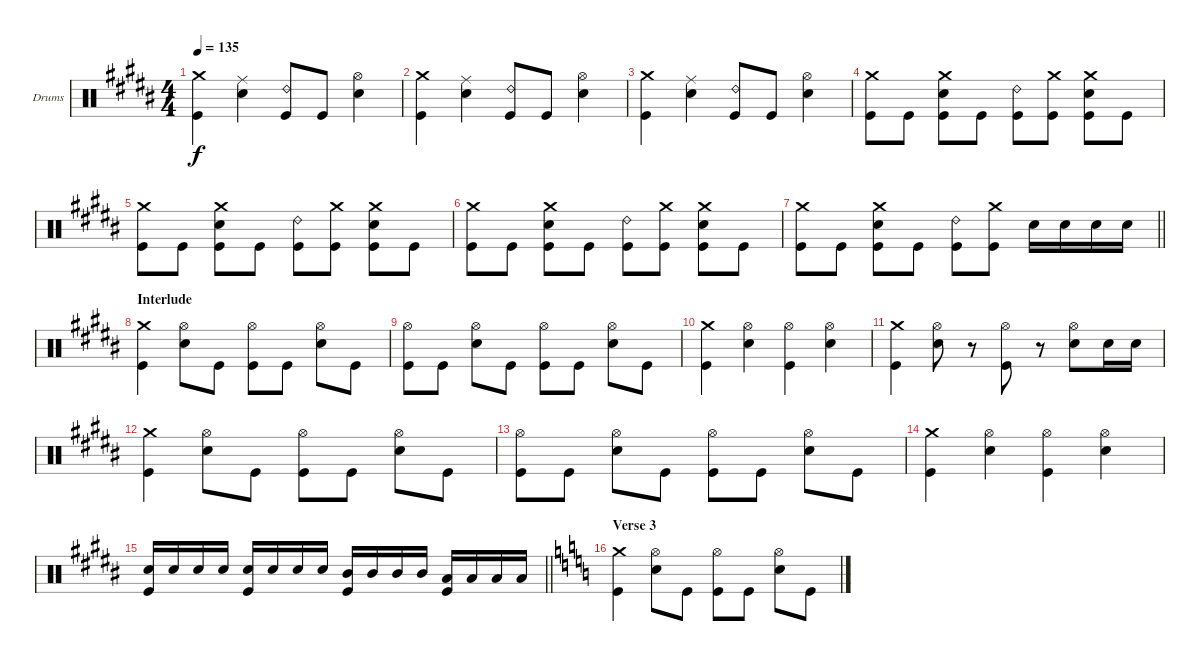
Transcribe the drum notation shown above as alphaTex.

\bracketExtendMode groupsimilarinstruments
\firstSystemTrackNameOrientation horizontal
\otherSystemsTrackNameOrientation horizontal
\track ("Drumkit" "Drums") {multiBarRest instrument percussion}
\staff {score}
\articulation defaults
\ts (4 4)
\tempo 135
\clef neutral
\ks b
("Crash medium (hit)" "Kick (hit)").4{dy f} ("Ride (middle)" "Snare (hit) 2").4 ("Ride (bell) 2" "Kick (hit)").8 "Kick (hit)".8 ("Hi-Hat (open)" "Snare (hit) 2").4 |
("Crash medium (hit)" "Kick (hit)").4 ("Ride (middle)" "Snare (hit) 2").4 ("Ride (bell) 2" "Kick (hit)").8 "Kick (hit)".8 ("Hi-Hat (open)" "Snare (hit) 2").4 |
("Crash medium (hit)" "Kick (hit)").4 ("Ride (middle)" "Snare (hit) 2").4 ("Ride (bell) 2" "Kick (hit)").8 "Kick (hit)".8 ("Hi-Hat (open)" "Snare (hit) 2").4 |
("Crash medium (hit)" "Kick (hit)").8 "Kick (hit)".8 ("Crash medium (hit)" "Snare (hit) 2" "Kick (hit)").8 "Kick (hit)".8 ("Ride (bell) 2" "Kick (hit)").8 ("Crash medium (hit)" "Kick (hit)").8 ("Crash medium (hit)" "Snare (hit) 2" "Kick (hit)").8 "Kick (hit)".8 |
("Crash medium (hit)" "Kick (hit)").8 "Kick (hit)".8 ("Crash medium (hit)" "Snare (hit) 2" "Kick (hit)").8 "Kick (hit)".8 ("Ride (bell) 2" "Kick (hit)").8 ("Crash medium (hit)" "Kick (hit)").8 ("Crash medium (hit)" "Snare (hit) 2" "Kick (hit)").8 "Kick (hit)".8 |
("Crash medium (hit)" "Kick (hit)").8 "Kick (hit)".8 ("Crash medium (hit)" "Snare (hit) 2" "Kick (hit)").8 "Kick (hit)".8 ("Ride (bell) 2" "Kick (hit)").8 ("Crash medium (hit)" "Kick (hit)").8 ("Crash medium (hit)" "Snare (hit) 2" "Kick (hit)").8 "Kick (hit)".8 |
\barLineRight lightlight
("Crash medium (hit)" "Kick (hit)").8 "Kick (hit)".8 ("Crash medium (hit)" "Snare (hit) 2" "Kick (hit)").8 "Kick (hit)".8 ("Ride (bell) 2" "Kick (hit)").8 ("Crash medium (hit)" "Kick (hit)").8 "Snare (hit) 2".16 "Snare (hit) 2".16 "Snare (hit) 2".16 "Snare (hit) 2".16 |
\section ("" "Interlude")
("Crash medium (hit)" "Kick (hit)").4 ("Snare (hit) 2" "Hi-Hat (open)").8 "Kick (hit)".8 ("Hi-Hat (open)" "Kick (hit)").8 "Kick (hit)".8 ("Hi-Hat (open)" "Snare (hit) 2").8 "Kick (hit)".8 |
("Hi-Hat (open)" "Kick (hit)").8 "Kick (hit)".8 ("Snare (hit) 2" "Hi-Hat (open)").8 "Kick (hit)".8 ("Hi-Hat (open)" "Kick (hit)").8 "Kick (hit)".8 ("Hi-Hat (open)" "Snare (hit) 2").8 "Kick (hit)".8 |
("Crash medium (hit)" "Kick (hit)").4 ("Hi-Hat (open)" "Snare (hit) 2").4 ("Hi-Hat (open)" "Kick (hit)").4 ("Hi-Hat (open)" "Snare (hit) 2").4 |
("Crash medium (hit)" "Kick (hit)").4 ("Snare (hit) 2" "Hi-Hat (open)").8 r.8 ("Hi-Hat (open)" "Kick (hit)").8 r.8 ("Hi-Hat (open)" "Snare (hit) 2").8 "Snare (hit) 2".16 "Snare (hit) 2".16 |
("Crash medium (hit)" "Kick (hit)").4 ("Snare (hit) 2" "Hi-Hat (open)").8 "Kick (hit)".8 ("Hi-Hat (open)" "Kick (hit)").8 "Kick (hit)".8 ("Hi-Hat (open)" "Snare (hit) 2").8 "Kick (hit)".8 |
("Hi-Hat (open)" "Kick (hit)").8 "Kick (hit)".8 ("Snare (hit) 2" "Hi-Hat (open)").8 "Kick (hit)".8 ("Hi-Hat (open)" "Kick (hit)").8 "Kick (hit)".8 ("Hi-Hat (open)" "Snare (hit) 2").8 "Kick (hit)".8 |
("Crash medium (hit)" "Kick (hit)").4 ("Hi-Hat (open)" "Snare (hit) 2").4 ("Hi-Hat (open)" "Kick (hit)").4 ("Hi-Hat (open)" "Snare (hit) 2").4 |
\barLineRight lightlight
("Snare (hit) 2" "Kick (hit)").16 "Snare (hit) 2".16 "Snare (hit) 2".16 "Snare (hit) 2".16 ("Snare (hit) 2" "Kick (hit)").16 "Snare (hit) 2".16 "Snare (hit) 2".16 "Snare (hit) 2".16 ("Mid Tom (hit)" "Kick (hit)").16 "Mid Tom (hit)".16 "Mid Tom (hit)".16 "Mid Tom (hit)".16 ("Low Tom (hit)" "Kick (hit)").16 "Low Tom (hit)".16 "Low Tom (hit)".16 "Low Tom (hit)".16 |
\section ("" "Verse 3")
\ks c
("Crash medium (hit)" "Kick (hit)").4 ("Snare (hit) 2" "Hi-Hat (open)").8 "Kick (hit)".8 ("Hi-Hat (open)" "Kick (hit)").8 "Kick (hit)".8 ("Snare (hit) 2" "Hi-Hat (open)").8 "Kick (hit)".8
